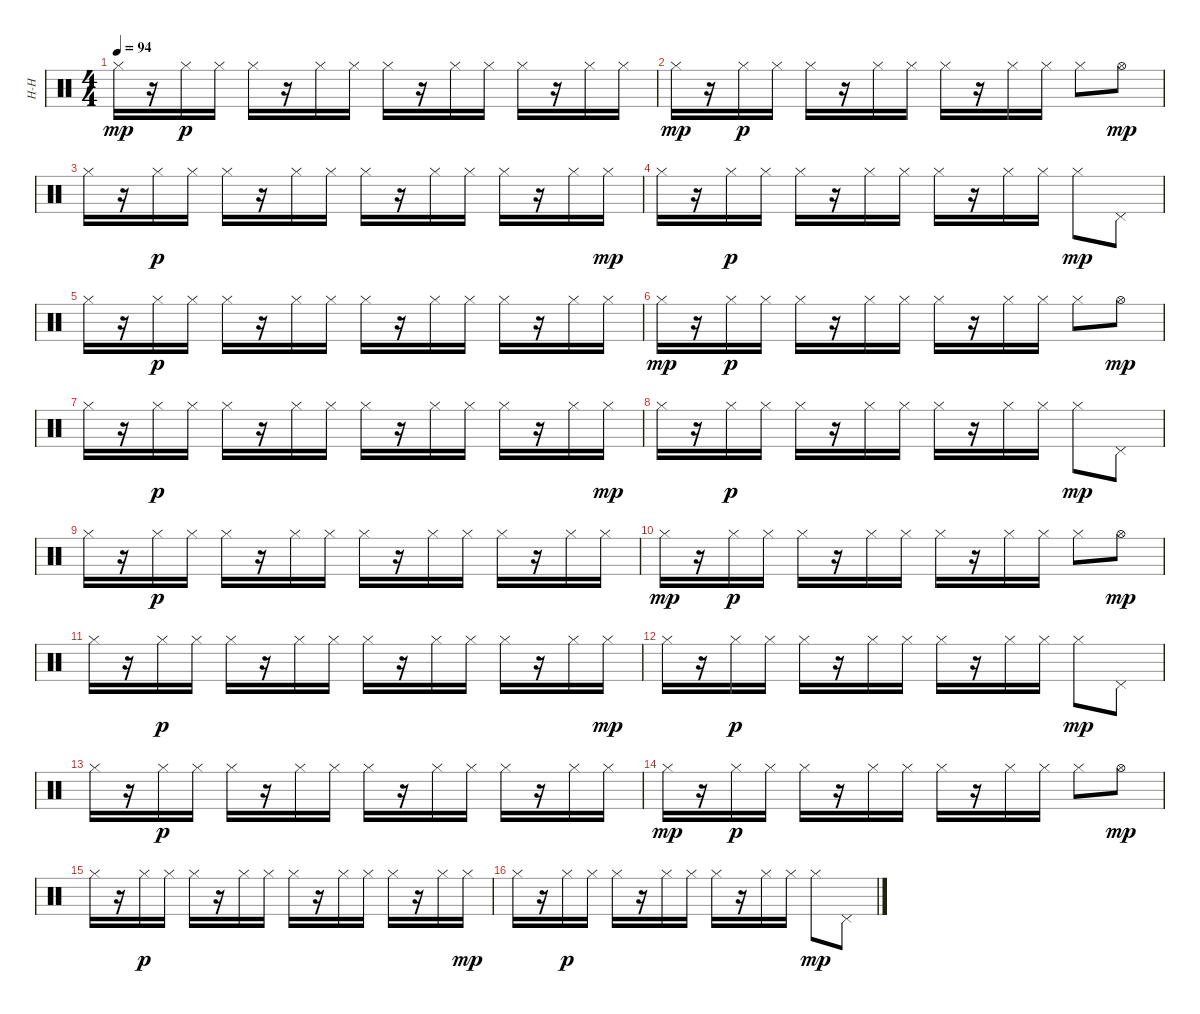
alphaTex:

\track ("H-H" "H-H") {instrument percussion}
\staff {score}
\articulation defaults
\ts (4 4)
\tempo 94
\clef neutral
\ks c "Hi-Hat (closed)".16{dy mp}
r.16 "Hi-Hat (closed)".16{dy p} "Hi-Hat (closed)".16 "Hi-Hat (closed)".16 r.16 "Hi-Hat (closed)".16 "Hi-Hat (closed)".16 "Hi-Hat (closed)".16 r.16 "Hi-Hat (closed)".16 "Hi-Hat (closed)".16 "Hi-Hat (closed)".16 r.16 "Hi-Hat (closed)".16 "Hi-Hat (closed)".16 |
"Hi-Hat (closed)".16{dy mp} r.16 "Hi-Hat (closed)".16{dy p} "Hi-Hat (closed)".16 "Hi-Hat (closed)".16 r.16 "Hi-Hat (closed)".16 "Hi-Hat (closed)".16 "Hi-Hat (closed)".16 r.16 "Hi-Hat (closed)".16 "Hi-Hat (closed)".16 "Hi-Hat (closed)".8 "Hi-Hat (open)".8{dy mp} |
"Hi-Hat (closed)".16 r.16 "Hi-Hat (closed)".16{dy p} "Hi-Hat (closed)".16 "Hi-Hat (closed)".16 r.16 "Hi-Hat (closed)".16 "Hi-Hat (closed)".16 "Hi-Hat (closed)".16 r.16 "Hi-Hat (closed)".16 "Hi-Hat (closed)".16 "Hi-Hat (closed)".16 r.16 "Hi-Hat (closed)".16 "Hi-Hat (closed)".16{dy mp} |
"Hi-Hat (closed)".16 r.16 "Hi-Hat (closed)".16{dy p} "Hi-Hat (closed)".16 "Hi-Hat (closed)".16 r.16 "Hi-Hat (closed)".16 "Hi-Hat (closed)".16 "Hi-Hat (closed)".16 r.16 "Hi-Hat (closed)".16 "Hi-Hat (closed)".16 "Hi-Hat (closed)".8{dy mp} "Pedal Hi-Hat (hit)".8 |
"Hi-Hat (closed)".16 r.16 "Hi-Hat (closed)".16{dy p} "Hi-Hat (closed)".16 "Hi-Hat (closed)".16 r.16 "Hi-Hat (closed)".16 "Hi-Hat (closed)".16 "Hi-Hat (closed)".16 r.16 "Hi-Hat (closed)".16 "Hi-Hat (closed)".16 "Hi-Hat (closed)".16 r.16 "Hi-Hat (closed)".16 "Hi-Hat (closed)".16 |
"Hi-Hat (closed)".16{dy mp} r.16 "Hi-Hat (closed)".16{dy p} "Hi-Hat (closed)".16 "Hi-Hat (closed)".16 r.16 "Hi-Hat (closed)".16 "Hi-Hat (closed)".16 "Hi-Hat (closed)".16 r.16 "Hi-Hat (closed)".16 "Hi-Hat (closed)".16 "Hi-Hat (closed)".8 "Hi-Hat (open)".8{dy mp} |
"Hi-Hat (closed)".16 r.16 "Hi-Hat (closed)".16{dy p} "Hi-Hat (closed)".16 "Hi-Hat (closed)".16 r.16 "Hi-Hat (closed)".16 "Hi-Hat (closed)".16 "Hi-Hat (closed)".16 r.16 "Hi-Hat (closed)".16 "Hi-Hat (closed)".16 "Hi-Hat (closed)".16 r.16 "Hi-Hat (closed)".16 "Hi-Hat (closed)".16{dy mp} |
"Hi-Hat (closed)".16 r.16 "Hi-Hat (closed)".16{dy p} "Hi-Hat (closed)".16 "Hi-Hat (closed)".16 r.16 "Hi-Hat (closed)".16 "Hi-Hat (closed)".16 "Hi-Hat (closed)".16 r.16 "Hi-Hat (closed)".16 "Hi-Hat (closed)".16 "Hi-Hat (closed)".8{dy mp} "Pedal Hi-Hat (hit)".8 |
"Hi-Hat (closed)".16 r.16 "Hi-Hat (closed)".16{dy p} "Hi-Hat (closed)".16 "Hi-Hat (closed)".16 r.16 "Hi-Hat (closed)".16 "Hi-Hat (closed)".16 "Hi-Hat (closed)".16 r.16 "Hi-Hat (closed)".16 "Hi-Hat (closed)".16 "Hi-Hat (closed)".16 r.16 "Hi-Hat (closed)".16 "Hi-Hat (closed)".16 |
"Hi-Hat (closed)".16{dy mp} r.16 "Hi-Hat (closed)".16{dy p} "Hi-Hat (closed)".16 "Hi-Hat (closed)".16 r.16 "Hi-Hat (closed)".16 "Hi-Hat (closed)".16 "Hi-Hat (closed)".16 r.16 "Hi-Hat (closed)".16 "Hi-Hat (closed)".16 "Hi-Hat (closed)".8 "Hi-Hat (open)".8{dy mp} |
"Hi-Hat (closed)".16 r.16 "Hi-Hat (closed)".16{dy p} "Hi-Hat (closed)".16 "Hi-Hat (closed)".16 r.16 "Hi-Hat (closed)".16 "Hi-Hat (closed)".16 "Hi-Hat (closed)".16 r.16 "Hi-Hat (closed)".16 "Hi-Hat (closed)".16 "Hi-Hat (closed)".16 r.16 "Hi-Hat (closed)".16 "Hi-Hat (closed)".16{dy mp} |
"Hi-Hat (closed)".16 r.16 "Hi-Hat (closed)".16{dy p} "Hi-Hat (closed)".16 "Hi-Hat (closed)".16 r.16 "Hi-Hat (closed)".16 "Hi-Hat (closed)".16 "Hi-Hat (closed)".16 r.16 "Hi-Hat (closed)".16 "Hi-Hat (closed)".16 "Hi-Hat (closed)".8{dy mp} "Pedal Hi-Hat (hit)".8 |
"Hi-Hat (closed)".16 r.16 "Hi-Hat (closed)".16{dy p} "Hi-Hat (closed)".16 "Hi-Hat (closed)".16 r.16 "Hi-Hat (closed)".16 "Hi-Hat (closed)".16 "Hi-Hat (closed)".16 r.16 "Hi-Hat (closed)".16 "Hi-Hat (closed)".16 "Hi-Hat (closed)".16 r.16 "Hi-Hat (closed)".16 "Hi-Hat (closed)".16 |
"Hi-Hat (closed)".16{dy mp} r.16 "Hi-Hat (closed)".16{dy p} "Hi-Hat (closed)".16 "Hi-Hat (closed)".16 r.16 "Hi-Hat (closed)".16 "Hi-Hat (closed)".16 "Hi-Hat (closed)".16 r.16 "Hi-Hat (closed)".16 "Hi-Hat (closed)".16 "Hi-Hat (closed)".8 "Hi-Hat (open)".8{dy mp} |
"Hi-Hat (closed)".16 r.16 "Hi-Hat (closed)".16{dy p} "Hi-Hat (closed)".16 "Hi-Hat (closed)".16 r.16 "Hi-Hat (closed)".16 "Hi-Hat (closed)".16 "Hi-Hat (closed)".16 r.16 "Hi-Hat (closed)".16 "Hi-Hat (closed)".16 "Hi-Hat (closed)".16 r.16 "Hi-Hat (closed)".16 "Hi-Hat (closed)".16{dy mp} |
"Hi-Hat (closed)".16 r.16 "Hi-Hat (closed)".16{dy p} "Hi-Hat (closed)".16 "Hi-Hat (closed)".16 r.16 "Hi-Hat (closed)".16 "Hi-Hat (closed)".16 "Hi-Hat (closed)".16 r.16 "Hi-Hat (closed)".16 "Hi-Hat (closed)".16 "Hi-Hat (closed)".8{dy mp} "Pedal Hi-Hat (hit)".8
